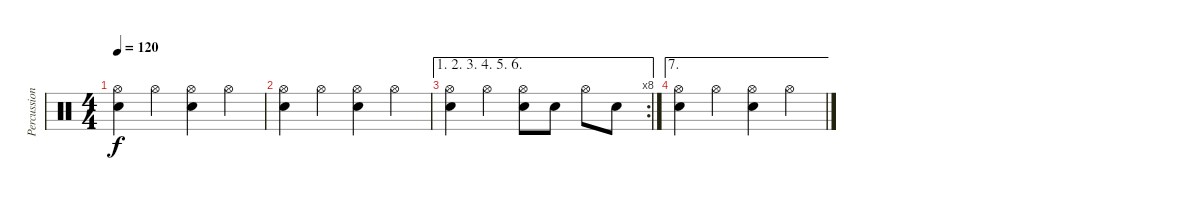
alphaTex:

\track ("Percussion" "Percussion") {instrument percussion}
\staff {score}
\articulation defaults
\ts (4 4)
\tempo 120
\clef neutral
\ks c
("Hi-Hat (open)" "Snare (hit) 2").4{dy f volume 12} "Hi-Hat (open)".4 ("Hi-Hat (open)" "Snare (hit) 2").4 "Hi-Hat (open)".4 |
("Hi-Hat (open)" "Snare (hit) 2").4{volume 12} "Hi-Hat (open)".4 ("Hi-Hat (open)" "Snare (hit) 2").4 "Hi-Hat (open)".4 |
\ae (1 2 3 4 5 6)
\rc 8
("Hi-Hat (open)" "Snare (hit) 2").4{volume 12} "Hi-Hat (open)".4 ("Hi-Hat (open)" "Snare (hit) 2").8 "Snare (hit) 2".8 "Hi-Hat (open)".8 "Snare (hit) 2".8 |
\ae 7
("Hi-Hat (open)" "Snare (hit) 2").4{volume 12} "Hi-Hat (open)".4 ("Hi-Hat (open)" "Snare (hit) 2").4 "Hi-Hat (open)".4
